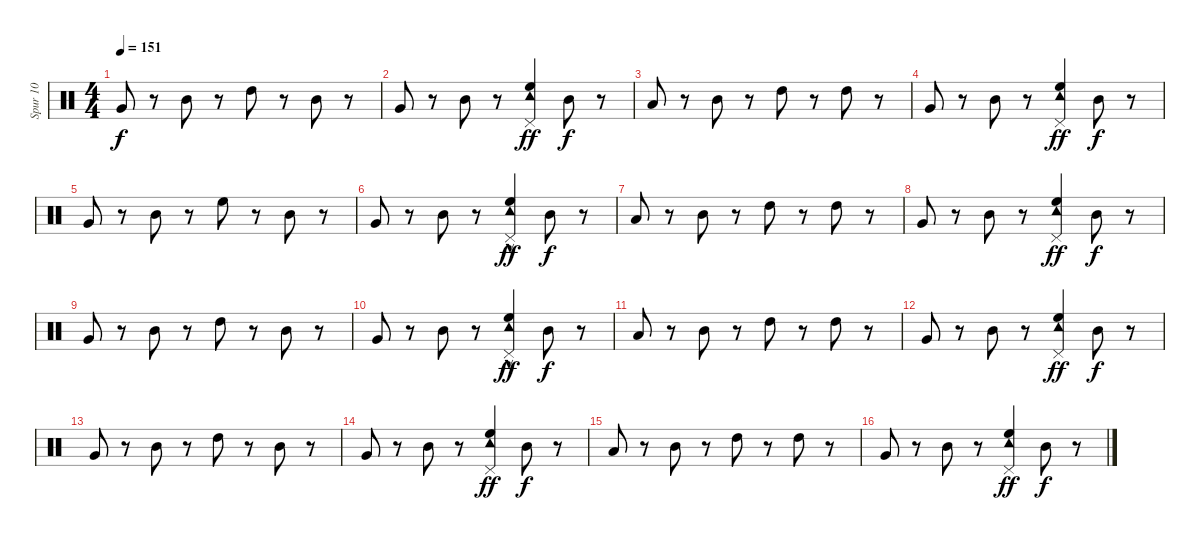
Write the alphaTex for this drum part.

\track ("Spur 10" "Spur 10") {instrument percussion}
\staff {score}
\articulation defaults
\ts (4 4)
\tempo 151
\clef neutral
\ks c "Very Low Tom (hit)".8{dy f}
r.8 "Mid Tom (hit)".8 r.8 "High Tom (hit)".8 r.8 "Mid Tom (hit)".8 r.8 |
"Very Low Tom (hit)".8 r.8 "Mid Tom (hit)".8 r.8 ("Pedal Hi-Hat (hit)" "Tambourine (hit)" "High Floor Tom (hit)").4{dy ff} "Mid Tom (hit)".8{dy f} r.8 |
"Low Tom (hit)".8 r.8 "Mid Tom (hit)".8 r.8 "High Tom (hit)".8 r.8 "High Tom (hit)".8 r.8 |
"Very Low Tom (hit)".8 r.8 "Mid Tom (hit)".8 r.8 ("Tambourine (hit)" "Pedal Hi-Hat (hit)" "High Floor Tom (hit)").4{dy ff} "Mid Tom (hit)".8{dy f} r.8 |
"Very Low Tom (hit)".8 r.8 "Mid Tom (hit)".8 r.8 "High Floor Tom (hit)".8 r.8 "Mid Tom (hit)".8 r.8 |
"Very Low Tom (hit)".8 r.8 "Mid Tom (hit)".8 r.8 ("Pedal Hi-Hat (hit)" "Tambourine (hit)"{hac} "High Floor Tom (hit)").4{dy ff} "Mid Tom (hit)".8{dy f} r.8 |
"Low Tom (hit)".8 r.8 "Mid Tom (hit)".8 r.8 "High Tom (hit)".8 r.8 "High Tom (hit)".8 r.8 |
"Very Low Tom (hit)".8 r.8 "Mid Tom (hit)".8 r.8 ("Pedal Hi-Hat (hit)" "Tambourine (hit)" "High Floor Tom (hit)").4{dy ff} "Mid Tom (hit)".8{dy f} r.8 |
"Very Low Tom (hit)".8 r.8 "Mid Tom (hit)".8 r.8 "High Tom (hit)".8 r.8 "Mid Tom (hit)".8 r.8 |
"Very Low Tom (hit)".8 r.8 "Mid Tom (hit)".8 r.8 ("Pedal Hi-Hat (hit)" "Tambourine (hit)"{hac} "High Floor Tom (hit)").4{dy ff} "Mid Tom (hit)".8{dy f} r.8 |
"Low Tom (hit)".8 r.8 "Mid Tom (hit)".8 r.8 "High Tom (hit)".8 r.8 "High Tom (hit)".8 r.8 |
"Very Low Tom (hit)".8 r.8 "Mid Tom (hit)".8 r.8 ("Pedal Hi-Hat (hit)" "Tambourine (hit)" "High Floor Tom (hit)").4{dy ff} "Mid Tom (hit)".8{dy f} r.8 |
"Very Low Tom (hit)".8 r.8 "Mid Tom (hit)".8 r.8 "High Tom (hit)".8 r.8 "Mid Tom (hit)".8 r.8 |
"Very Low Tom (hit)".8 r.8 "Mid Tom (hit)".8 r.8 ("Pedal Hi-Hat (hit)" "Tambourine (hit)" "High Floor Tom (hit)").4{dy ff} "Mid Tom (hit)".8{dy f} r.8 |
"Low Tom (hit)".8 r.8 "Mid Tom (hit)".8 r.8 "High Tom (hit)".8 r.8 "High Tom (hit)".8 r.8 |
"Very Low Tom (hit)".8 r.8 "Mid Tom (hit)".8 r.8 ("Tambourine (hit)" "Pedal Hi-Hat (hit)" "High Floor Tom (hit)").4{dy ff} "Mid Tom (hit)".8{dy f} r.8
